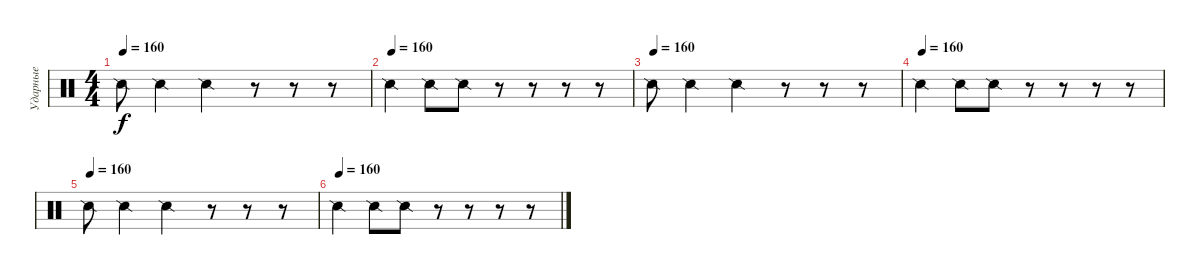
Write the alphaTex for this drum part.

\track ("Ударные" "Ударные") {instrument percussion}
\staff {score}
\articulation defaults
\ts (4 4)
\tempo 160
\clef neutral
\ks c "Snare (side stick) 2".8{dy f} "Snare (side stick) 2".4 "Snare (side stick) 2".4
r.8 r.8 r.8 |
\tempo (160)
"Snare (side stick) 2".4 "Snare (side stick) 2".8 "Snare (side stick) 2".8 r.8 r.8 r.8 r.8 |
\tempo (160)
"Snare (side stick) 2".8 "Snare (side stick) 2".4 "Snare (side stick) 2".4 r.8 r.8 r.8 |
\tempo (160)
"Snare (side stick) 2".4 "Snare (side stick) 2".8 "Snare (side stick) 2".8 r.8 r.8 r.8 r.8 |
\tempo (160)
"Snare (side stick) 2".8 "Snare (side stick) 2".4 "Snare (side stick) 2".4 r.8 r.8 r.8 |
\tempo (160)
"Snare (side stick) 2".4 "Snare (side stick) 2".8 "Snare (side stick) 2".8 r.8 r.8 r.8 r.8
